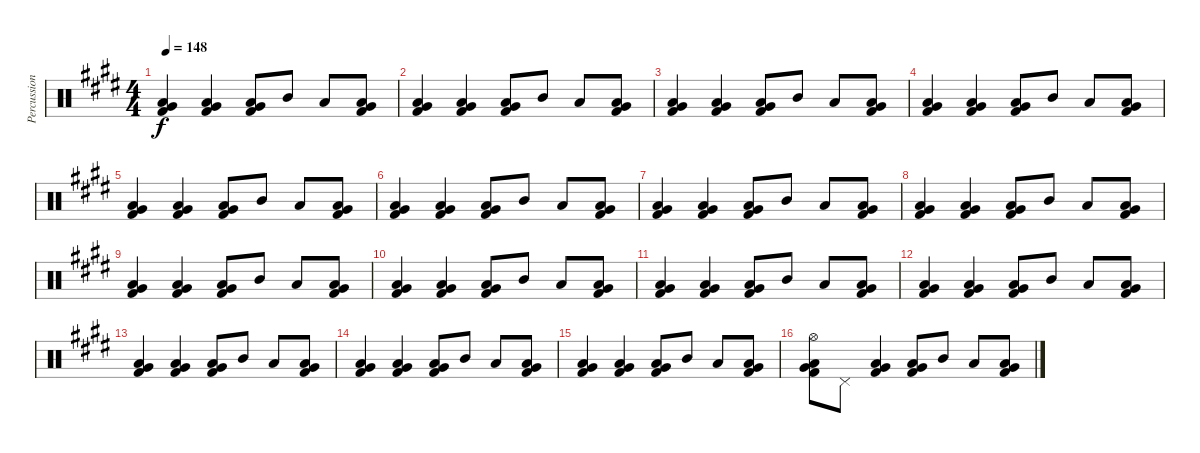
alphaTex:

\track ("Percussion" "Percussion") {instrument percussion}
\staff {score}
\articulation defaults
\ts (4 4)
\tempo 148
\clef neutral
\ks e
("Low Floor Tom (hit)" "Very Low Tom (hit)" "Kick (hit) 2").4{dy f} ("Low Floor Tom (hit)" "Very Low Tom (hit)" "Kick (hit) 2").4 ("Low Floor Tom (hit)" "Very Low Tom (hit)" "Kick (hit) 2").8 "Mid Tom (hit)".8 "Low Tom (hit)".8 ("Low Floor Tom (hit)" "Very Low Tom (hit)" "Kick (hit) 2").8 |
("Low Floor Tom (hit)" "Very Low Tom (hit)" "Kick (hit) 2").4 ("Low Floor Tom (hit)" "Very Low Tom (hit)" "Kick (hit) 2").4 ("Low Floor Tom (hit)" "Very Low Tom (hit)" "Kick (hit) 2").8 "Mid Tom (hit)".8 "Low Tom (hit)".8 ("Low Floor Tom (hit)" "Very Low Tom (hit)" "Kick (hit) 2").8 |
("Low Floor Tom (hit)" "Very Low Tom (hit)" "Kick (hit) 2").4 ("Low Floor Tom (hit)" "Very Low Tom (hit)" "Kick (hit) 2").4 ("Low Floor Tom (hit)" "Very Low Tom (hit)" "Kick (hit) 2").8 "Mid Tom (hit)".8 "Low Tom (hit)".8 ("Low Floor Tom (hit)" "Very Low Tom (hit)" "Kick (hit) 2").8 |
("Low Floor Tom (hit)" "Very Low Tom (hit)" "Kick (hit) 2").4 ("Low Floor Tom (hit)" "Very Low Tom (hit)" "Kick (hit) 2").4 ("Low Floor Tom (hit)" "Very Low Tom (hit)" "Kick (hit) 2").8 "Mid Tom (hit)".8 "Low Tom (hit)".8 ("Low Floor Tom (hit)" "Very Low Tom (hit)" "Kick (hit) 2").8 |
("Low Floor Tom (hit)" "Very Low Tom (hit)" "Kick (hit) 2").4 ("Low Floor Tom (hit)" "Very Low Tom (hit)" "Kick (hit) 2").4 ("Low Floor Tom (hit)" "Very Low Tom (hit)" "Kick (hit) 2").8 "Mid Tom (hit)".8 "Low Tom (hit)".8 ("Low Floor Tom (hit)" "Very Low Tom (hit)" "Kick (hit) 2").8 |
("Low Floor Tom (hit)" "Very Low Tom (hit)" "Kick (hit) 2").4 ("Low Floor Tom (hit)" "Very Low Tom (hit)" "Kick (hit) 2").4 ("Low Floor Tom (hit)" "Very Low Tom (hit)" "Kick (hit) 2").8 "Mid Tom (hit)".8 "Low Tom (hit)".8 ("Low Floor Tom (hit)" "Very Low Tom (hit)" "Kick (hit) 2").8 |
("Low Floor Tom (hit)" "Very Low Tom (hit)" "Kick (hit) 2").4 ("Low Floor Tom (hit)" "Very Low Tom (hit)" "Kick (hit) 2").4 ("Low Floor Tom (hit)" "Very Low Tom (hit)" "Kick (hit) 2").8 "Mid Tom (hit)".8 "Low Tom (hit)".8 ("Low Floor Tom (hit)" "Very Low Tom (hit)" "Kick (hit) 2").8 |
("Low Floor Tom (hit)" "Very Low Tom (hit)" "Kick (hit) 2").4 ("Low Floor Tom (hit)" "Very Low Tom (hit)" "Kick (hit) 2").4 ("Low Floor Tom (hit)" "Very Low Tom (hit)" "Kick (hit) 2").8 "Mid Tom (hit)".8 "Low Tom (hit)".8 ("Low Floor Tom (hit)" "Very Low Tom (hit)" "Kick (hit) 2").8 |
("Low Floor Tom (hit)" "Very Low Tom (hit)" "Kick (hit) 2").4 ("Low Floor Tom (hit)" "Very Low Tom (hit)" "Kick (hit) 2").4 ("Low Floor Tom (hit)" "Very Low Tom (hit)" "Kick (hit) 2").8 "Mid Tom (hit)".8 "Low Tom (hit)".8 ("Low Floor Tom (hit)" "Very Low Tom (hit)" "Kick (hit) 2").8 |
("Low Floor Tom (hit)" "Very Low Tom (hit)" "Kick (hit) 2").4 ("Low Floor Tom (hit)" "Very Low Tom (hit)" "Kick (hit) 2").4 ("Low Floor Tom (hit)" "Very Low Tom (hit)" "Kick (hit) 2").8 "Mid Tom (hit)".8 "Low Tom (hit)".8 ("Low Floor Tom (hit)" "Very Low Tom (hit)" "Kick (hit) 2").8 |
("Low Floor Tom (hit)" "Very Low Tom (hit)" "Kick (hit) 2").4 ("Low Floor Tom (hit)" "Very Low Tom (hit)" "Kick (hit) 2").4 ("Low Floor Tom (hit)" "Very Low Tom (hit)" "Kick (hit) 2").8 "Mid Tom (hit)".8 "Low Tom (hit)".8 ("Low Floor Tom (hit)" "Very Low Tom (hit)" "Kick (hit) 2").8 |
("Low Floor Tom (hit)" "Very Low Tom (hit)" "Kick (hit) 2").4 ("Low Floor Tom (hit)" "Very Low Tom (hit)" "Kick (hit) 2").4 ("Low Floor Tom (hit)" "Very Low Tom (hit)" "Kick (hit) 2").8 "Mid Tom (hit)".8 "Low Tom (hit)".8 ("Low Floor Tom (hit)" "Very Low Tom (hit)" "Kick (hit) 2").8 |
("Low Floor Tom (hit)" "Very Low Tom (hit)" "Kick (hit) 2").4 ("Low Floor Tom (hit)" "Very Low Tom (hit)" "Kick (hit) 2").4 ("Low Floor Tom (hit)" "Very Low Tom (hit)" "Kick (hit) 2").8 "Mid Tom (hit)".8 "Low Tom (hit)".8 ("Low Floor Tom (hit)" "Very Low Tom (hit)" "Kick (hit) 2").8 |
("Low Floor Tom (hit)" "Very Low Tom (hit)" "Kick (hit) 2").4 ("Low Floor Tom (hit)" "Very Low Tom (hit)" "Kick (hit) 2").4 ("Low Floor Tom (hit)" "Very Low Tom (hit)" "Kick (hit) 2").8 "Mid Tom (hit)".8 "Low Tom (hit)".8 ("Low Floor Tom (hit)" "Very Low Tom (hit)" "Kick (hit) 2").8 |
("Low Floor Tom (hit)" "Very Low Tom (hit)" "Kick (hit) 2").4 ("Low Floor Tom (hit)" "Very Low Tom (hit)" "Kick (hit) 2").4 ("Low Floor Tom (hit)" "Very Low Tom (hit)" "Kick (hit) 2").8 "Mid Tom (hit)".8 "Low Tom (hit)".8 ("Low Floor Tom (hit)" "Very Low Tom (hit)" "Kick (hit) 2").8 |
("Hi-Hat (open)" "Low Floor Tom (hit)" "Very Low Tom (hit)" "Kick (hit) 2").8 "Pedal Hi-Hat (hit)".8 ("Low Floor Tom (hit)" "Very Low Tom (hit)" "Kick (hit) 2").4 ("Low Floor Tom (hit)" "Very Low Tom (hit)" "Kick (hit) 2").8 "Mid Tom (hit)".8 "Low Tom (hit)".8 ("Low Floor Tom (hit)" "Very Low Tom (hit)" "Kick (hit) 2").8
